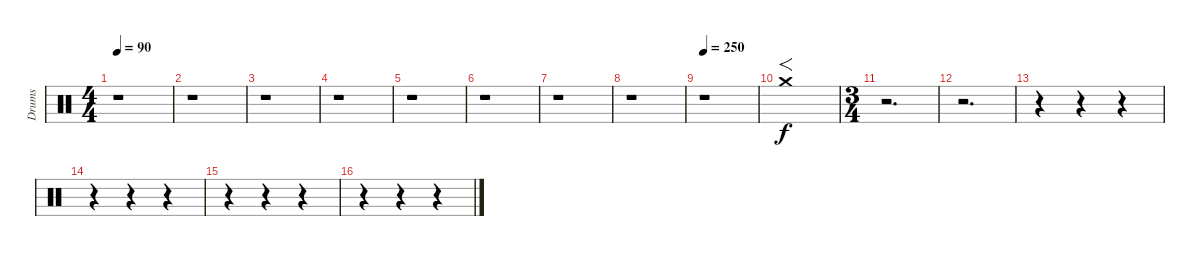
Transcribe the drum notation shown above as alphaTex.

\track ("Drums" "Drums") {instrument percussion}
\staff {score}
\articulation defaults
\ts (4 4)
\tempo 90
\clef neutral
\ks c
r.1{dy f} |
r.1 |
r.1 |
r.1 |
r.1 |
r.1 |
r.1 |
r.1 |
\tempo 250
r.1 |
"Crash medium (hit)"{tr (49 64)}.1{f} |
\ts (3 4)
r.2{d} |
r.2{d} |
r.4 r.4 r.4 |
r.4 r.4 r.4 |
r.4 r.4 r.4 |
r.4 r.4 r.4
